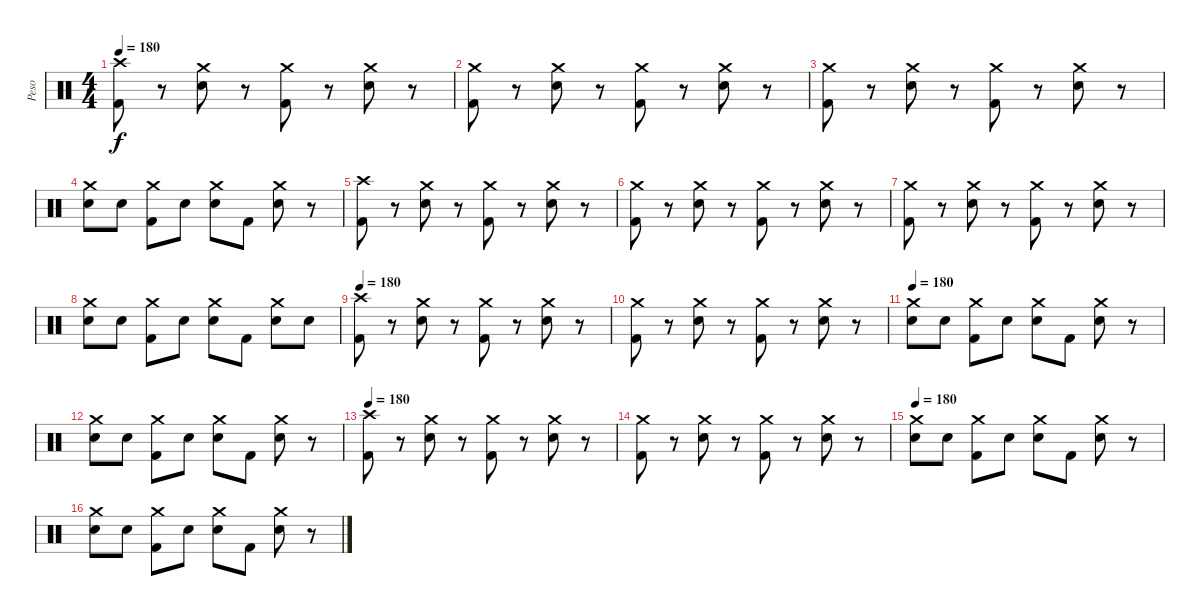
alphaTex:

\track ("Peso" "Peso") {instrument percussion}
\staff {score}
\articulation defaults
\ts (4 4)
\tempo 180
\clef neutral
\ks c
("Crash high (hit)" "Kick (hit) 2").8{dy f} r.8 ("Crash medium (hit)" "Snare (hit) 2").8 r.8 ("Crash medium (hit)" "Kick (hit) 2").8 r.8 ("Crash medium (hit)" "Snare (hit) 2").8 r.8 |
("Crash medium (hit)" "Kick (hit) 2").8 r.8 ("Crash medium (hit)" "Snare (hit) 2").8 r.8 ("Crash medium (hit)" "Kick (hit) 2").8 r.8 ("Crash medium (hit)" "Snare (hit) 2").8 r.8 |
("Crash medium (hit)" "Kick (hit) 2").8 r.8 ("Crash medium (hit)" "Snare (hit) 2").8 r.8 ("Crash medium (hit)" "Kick (hit) 2").8 r.8 ("Crash medium (hit)" "Snare (hit) 2").8 r.8 |
("Crash medium (hit)" "Snare (hit) 2").8 "Snare (hit) 2".8 ("Crash medium (hit)" "Kick (hit) 2").8 "Snare (hit) 2".8 ("Crash medium (hit)" "Snare (hit) 2").8 "Kick (hit) 2".8 ("Crash medium (hit)" "Snare (hit) 2").8 r.8 |
("Crash high (hit)" "Kick (hit) 2").8 r.8 ("Crash medium (hit)" "Snare (hit) 2").8 r.8 ("Crash medium (hit)" "Kick (hit) 2").8 r.8 ("Crash medium (hit)" "Snare (hit) 2").8 r.8 |
("Crash medium (hit)" "Kick (hit) 2").8 r.8 ("Crash medium (hit)" "Snare (hit) 2").8 r.8 ("Crash medium (hit)" "Kick (hit) 2").8 r.8 ("Crash medium (hit)" "Snare (hit) 2").8 r.8 |
("Crash medium (hit)" "Kick (hit) 2").8 r.8 ("Crash medium (hit)" "Snare (hit) 2").8 r.8 ("Crash medium (hit)" "Kick (hit) 2").8 r.8 ("Crash medium (hit)" "Snare (hit) 2").8 r.8 |
("Crash medium (hit)" "Snare (hit) 2").8 "Snare (hit) 2".8 ("Crash medium (hit)" "Kick (hit) 2").8 "Snare (hit) 2".8 ("Crash medium (hit)" "Snare (hit) 2").8 "Kick (hit) 2".8 ("Crash medium (hit)" "Snare (hit) 2").8 "Snare (hit) 2"{x}.8 |
\tempo 180
("Crash high (hit)" "Kick (hit) 2").8 r.8 ("Crash medium (hit)" "Snare (hit) 2").8 r.8 ("Crash medium (hit)" "Kick (hit) 2").8 r.8 ("Crash medium (hit)" "Snare (hit) 2").8 r.8 |
("Crash medium (hit)" "Kick (hit) 2").8 r.8 ("Crash medium (hit)" "Snare (hit) 2").8 r.8 ("Crash medium (hit)" "Kick (hit) 2").8 r.8 ("Crash medium (hit)" "Snare (hit) 2").8 r.8 |
\tempo 180
("Crash medium (hit)" "Snare (hit) 2").8 "Snare (hit) 2".8 ("Crash medium (hit)" "Kick (hit) 2").8 "Snare (hit) 2".8 ("Crash medium (hit)" "Snare (hit) 2").8 "Kick (hit) 2".8 ("Crash medium (hit)" "Snare (hit) 2").8 r.8 |
("Crash medium (hit)" "Snare (hit) 2").8 "Snare (hit) 2".8 ("Crash medium (hit)" "Kick (hit) 2").8 "Snare (hit) 2".8 ("Crash medium (hit)" "Snare (hit) 2").8 "Kick (hit) 2".8 ("Crash medium (hit)" "Snare (hit) 2").8 r.8 |
\tempo 180
("Crash high (hit)" "Kick (hit) 2").8 r.8 ("Crash medium (hit)" "Snare (hit) 2").8 r.8 ("Crash medium (hit)" "Kick (hit) 2").8 r.8 ("Crash medium (hit)" "Snare (hit) 2").8 r.8 |
("Crash medium (hit)" "Kick (hit) 2").8 r.8 ("Crash medium (hit)" "Snare (hit) 2").8 r.8 ("Crash medium (hit)" "Kick (hit) 2").8 r.8 ("Crash medium (hit)" "Snare (hit) 2").8 r.8 |
\tempo 180
("Crash medium (hit)" "Snare (hit) 2").8 "Snare (hit) 2".8 ("Crash medium (hit)" "Kick (hit) 2").8 "Snare (hit) 2".8 ("Crash medium (hit)" "Snare (hit) 2").8 "Kick (hit) 2".8 ("Crash medium (hit)" "Snare (hit) 2").8 r.8 |
("Crash medium (hit)" "Snare (hit) 2").8 "Snare (hit) 2".8 ("Crash medium (hit)" "Kick (hit) 2").8 "Snare (hit) 2".8 ("Crash medium (hit)" "Snare (hit) 2").8 "Kick (hit) 2".8 ("Crash medium (hit)" "Snare (hit) 2").8 r.8
